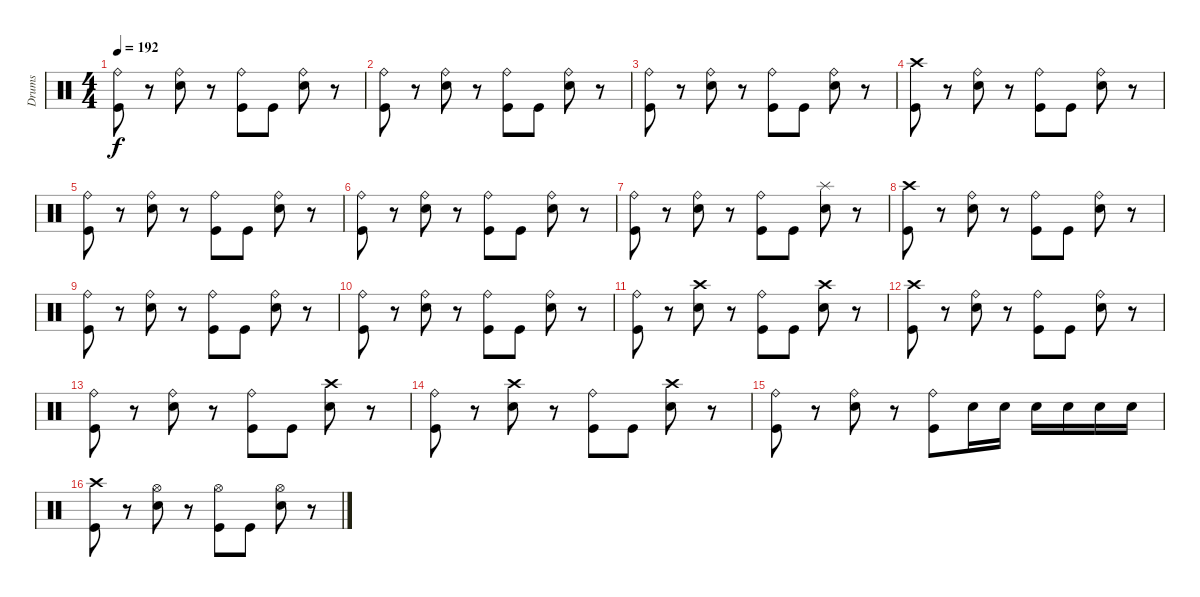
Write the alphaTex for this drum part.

\track ("Drums" "Drums") {instrument percussion}
\staff {score}
\articulation defaults
\ts (4 4)
\tempo 192
\clef neutral
\ks c
("Kick (hit)" "Ride (bell)").8{dy f} r.8 ("Electric Snare (hit)" "Ride (bell)").8 r.8 ("Kick (hit)" "Ride (bell)").8 "Kick (hit)".8 ("Electric Snare (hit)" "Ride (bell)").8 r.8 |
("Kick (hit)" "Ride (bell)").8 r.8 ("Electric Snare (hit)" "Ride (bell)").8 r.8 ("Kick (hit)" "Ride (bell)").8 "Kick (hit)".8 ("Electric Snare (hit)" "Ride (bell)").8 r.8 |
("Kick (hit)" "Ride (bell)").8 r.8 ("Electric Snare (hit)" "Ride (bell)").8 r.8 ("Kick (hit)" "Ride (bell)").8 "Kick (hit)".8 ("Electric Snare (hit)" "Ride (bell)").8 r.8 |
("Kick (hit)" "Crash high (hit)").8 r.8 ("Electric Snare (hit)" "Ride (bell)").8 r.8 ("Kick (hit)" "Ride (bell)").8 "Kick (hit)".8 ("Electric Snare (hit)" "Ride (bell)").8 r.8 |
("Kick (hit)" "Ride (bell)").8 r.8 ("Electric Snare (hit)" "Ride (bell)").8 r.8 ("Kick (hit)" "Ride (bell)").8 "Kick (hit)".8 ("Electric Snare (hit)" "Ride (bell)").8 r.8 |
("Kick (hit)" "Ride (bell)").8 r.8 ("Electric Snare (hit)" "Ride (bell)").8 r.8 ("Kick (hit)" "Ride (bell)").8 "Kick (hit)".8 ("Electric Snare (hit)" "Ride (bell)").8 r.8 |
("Kick (hit)" "Ride (bell)").8 r.8 ("Electric Snare (hit)" "Ride (bell)").8 r.8 ("Kick (hit)" "Ride (bell)").8 "Kick (hit)".8 ("Electric Snare (hit)" "Splash (hit)").8 r.8 |
("Kick (hit)" "Crash high (hit)").8 r.8 ("Electric Snare (hit)" "Ride (bell)").8 r.8 ("Kick (hit)" "Ride (bell)").8 "Kick (hit)".8 ("Electric Snare (hit)" "Ride (bell)").8 r.8 |
("Kick (hit)" "Ride (bell)").8 r.8 ("Electric Snare (hit)" "Ride (bell)").8 r.8 ("Kick (hit)" "Ride (bell)").8 "Kick (hit)".8 ("Electric Snare (hit)" "Ride (bell)").8 r.8 |
("Kick (hit)" "Ride (bell)").8 r.8 ("Electric Snare (hit)" "Ride (bell)").8 r.8 ("Kick (hit)" "Ride (bell)").8 "Kick (hit)".8 ("Electric Snare (hit)" "Ride (bell)").8 r.8 |
("Kick (hit)" "Ride (bell)").8 r.8 ("Electric Snare (hit)" "Crash high (hit)").8 r.8 ("Kick (hit)" "Ride (bell)").8 "Kick (hit)".8 ("Electric Snare (hit)" "Crash high (hit)").8 r.8 |
("Kick (hit)" "Crash high (hit)").8 r.8 ("Electric Snare (hit)" "Ride (bell)").8 r.8 ("Kick (hit)" "Ride (bell)").8 "Kick (hit)".8 ("Electric Snare (hit)" "Ride (bell)").8 r.8 |
("Kick (hit)" "Ride (bell)").8 r.8 ("Electric Snare (hit)" "Ride (bell)").8 r.8 ("Kick (hit)" "Ride (bell)").8 "Kick (hit)".8 ("Electric Snare (hit)" "Crash high (hit)").8 r.8 |
("Kick (hit)" "Ride (bell)").8 r.8 ("Electric Snare (hit)" "Crash high (hit)").8 r.8 ("Kick (hit)" "Ride (bell)").8 "Kick (hit)".8 ("Electric Snare (hit)" "Crash high (hit)").8 r.8 |
("Kick (hit)" "Ride (bell)").8 r.8 ("Electric Snare (hit)" "Ride (bell)").8 r.8 ("Kick (hit)" "Ride (bell)").8 "Electric Snare (hit)".16 "Electric Snare (hit)".16 "Electric Snare (hit)".16 "Electric Snare (hit)".16 "Electric Snare (hit)".16 "Electric Snare (hit)".16 |
("Kick (hit)" "Crash high (hit)").8 r.8 ("Electric Snare (hit)" "Hi-Hat (open)").8 r.8 ("Kick (hit)" "Hi-Hat (open)").8 "Kick (hit)".8 ("Electric Snare (hit)" "Hi-Hat (open)").8 r.8
